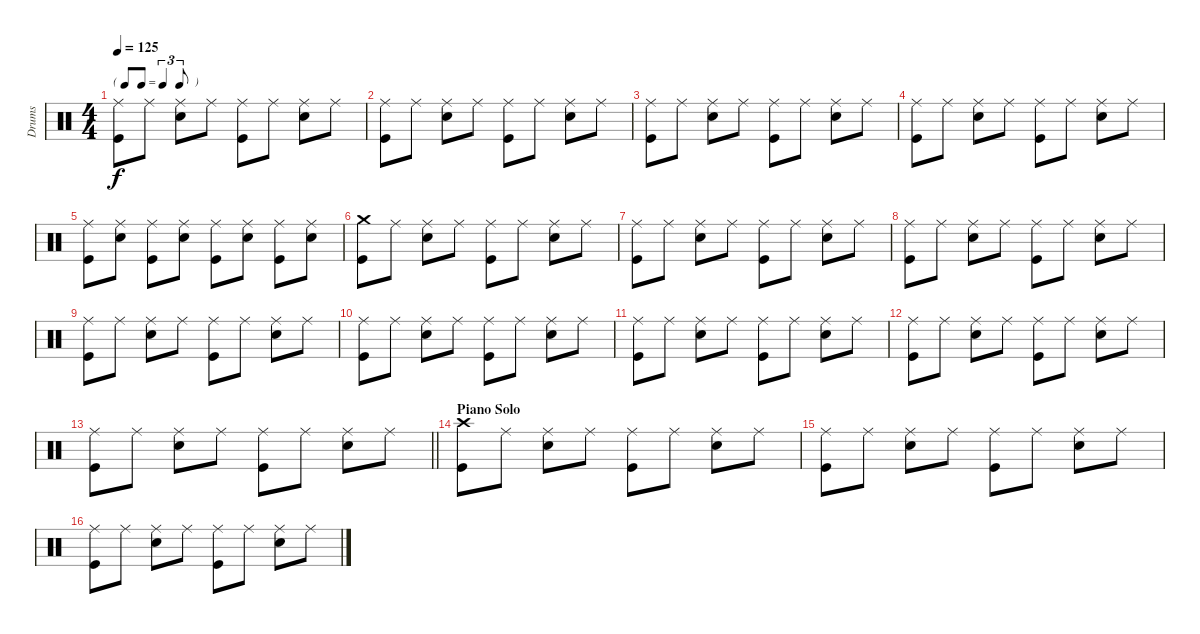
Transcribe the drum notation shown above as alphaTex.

\track ("Drums" "Drums") {instrument percussion}
\staff {score}
\articulation defaults
\ts (4 4)
\tf triplet8th
\tempo 125
\clef neutral
\ks aminor
("Ride (middle)" "Kick (hit)").8{dy f} "Ride (middle)".8 ("Ride (middle)" "Snare (hit) 2").8 "Ride (middle)".8 ("Ride (middle)" "Kick (hit)").8 "Ride (middle)".8 ("Ride (middle)" "Snare (hit) 2").8 "Ride (middle)".8 |
("Ride (middle)" "Kick (hit)").8 "Ride (middle)".8 ("Ride (middle)" "Snare (hit) 2").8 "Ride (middle)".8 ("Ride (middle)" "Kick (hit)").8 "Ride (middle)".8 ("Ride (middle)" "Snare (hit) 2").8 "Ride (middle)".8 |
("Ride (middle)" "Kick (hit)").8 "Ride (middle)".8 ("Ride (middle)" "Snare (hit) 2").8 "Ride (middle)".8 ("Ride (middle)" "Kick (hit)").8 "Ride (middle)".8 ("Ride (middle)" "Snare (hit) 2").8 "Ride (middle)".8 |
("Ride (middle)" "Kick (hit)").8 "Ride (middle)".8 ("Ride (middle)" "Snare (hit) 2").8 "Ride (middle)".8 ("Ride (middle)" "Kick (hit)").8 "Ride (middle)".8 ("Ride (middle)" "Snare (hit) 2").8 "Ride (middle)".8 |
("Ride (middle)" "Kick (hit)").8 ("Ride (middle)" "Snare (hit) 2").8 ("Ride (middle)" "Kick (hit)").8 ("Ride (middle)" "Snare (hit) 2").8 ("Ride (middle)" "Kick (hit)").8 ("Ride (middle)" "Snare (hit) 2").8 ("Ride (middle)" "Kick (hit)").8 ("Ride (middle)" "Snare (hit) 2").8 |
("Crash medium (hit)" "Kick (hit)").8 "Ride (middle)".8 ("Ride (middle)" "Snare (hit) 2").8 "Ride (middle)".8 ("Ride (middle)" "Kick (hit)").8 "Ride (middle)".8 ("Ride (middle)" "Snare (hit) 2").8 "Ride (middle)".8 |
("Ride (middle)" "Kick (hit)").8 "Ride (middle)".8 ("Ride (middle)" "Snare (hit) 2").8 "Ride (middle)".8 ("Ride (middle)" "Kick (hit)").8 "Ride (middle)".8 ("Ride (middle)" "Snare (hit) 2").8 "Ride (middle)".8 |
("Ride (middle)" "Kick (hit)").8 "Ride (middle)".8 ("Ride (middle)" "Snare (hit) 2").8 "Ride (middle)".8 ("Ride (middle)" "Kick (hit)").8 "Ride (middle)".8 ("Ride (middle)" "Snare (hit) 2").8 "Ride (middle)".8 |
("Ride (middle)" "Kick (hit)").8 "Ride (middle)".8 ("Ride (middle)" "Snare (hit) 2").8 "Ride (middle)".8 ("Ride (middle)" "Kick (hit)").8 "Ride (middle)".8 ("Ride (middle)" "Snare (hit) 2").8 "Ride (middle)".8 |
("Ride (middle)" "Kick (hit)").8 "Ride (middle)".8 ("Ride (middle)" "Snare (hit) 2").8 "Ride (middle)".8 ("Ride (middle)" "Kick (hit)").8 "Ride (middle)".8 ("Ride (middle)" "Snare (hit) 2").8 "Ride (middle)".8 |
("Ride (middle)" "Kick (hit)").8 "Ride (middle)".8 ("Ride (middle)" "Snare (hit) 2").8 "Ride (middle)".8 ("Ride (middle)" "Kick (hit)").8 "Ride (middle)".8 ("Ride (middle)" "Snare (hit) 2").8 "Ride (middle)".8 |
("Ride (middle)" "Kick (hit)").8 "Ride (middle)".8 ("Ride (middle)" "Snare (hit) 2").8 "Ride (middle)".8 ("Ride (middle)" "Kick (hit)").8 "Ride (middle)".8 ("Ride (middle)" "Snare (hit) 2").8 "Ride (middle)".8 |
\barLineRight lightlight
("Ride (middle)" "Kick (hit)").8 "Ride (middle)".8 ("Ride (middle)" "Snare (hit) 2").8 "Ride (middle)".8 ("Ride (middle)" "Kick (hit)").8 "Ride (middle)".8 ("Ride (middle)" "Snare (hit) 2").8 "Ride (middle)".8 |
\section ("" "Piano Solo")
("Crash high (hit)" "Kick (hit)").8 "Ride (middle)".8 ("Ride (middle)" "Snare (hit) 2").8 "Ride (middle)".8 ("Ride (middle)" "Kick (hit)").8 "Ride (middle)".8 ("Ride (middle)" "Snare (hit) 2").8 "Ride (middle)".8 |
("Ride (middle)" "Kick (hit)").8 "Ride (middle)".8 ("Ride (middle)" "Snare (hit) 2").8 "Ride (middle)".8 ("Ride (middle)" "Kick (hit)").8 "Ride (middle)".8 ("Ride (middle)" "Snare (hit) 2").8 "Ride (middle)".8 |
("Ride (middle)" "Kick (hit)").8 "Ride (middle)".8 ("Ride (middle)" "Snare (hit) 2").8 "Ride (middle)".8 ("Ride (middle)" "Kick (hit)").8 "Ride (middle)".8 ("Ride (middle)" "Snare (hit) 2").8 "Ride (middle)".8
